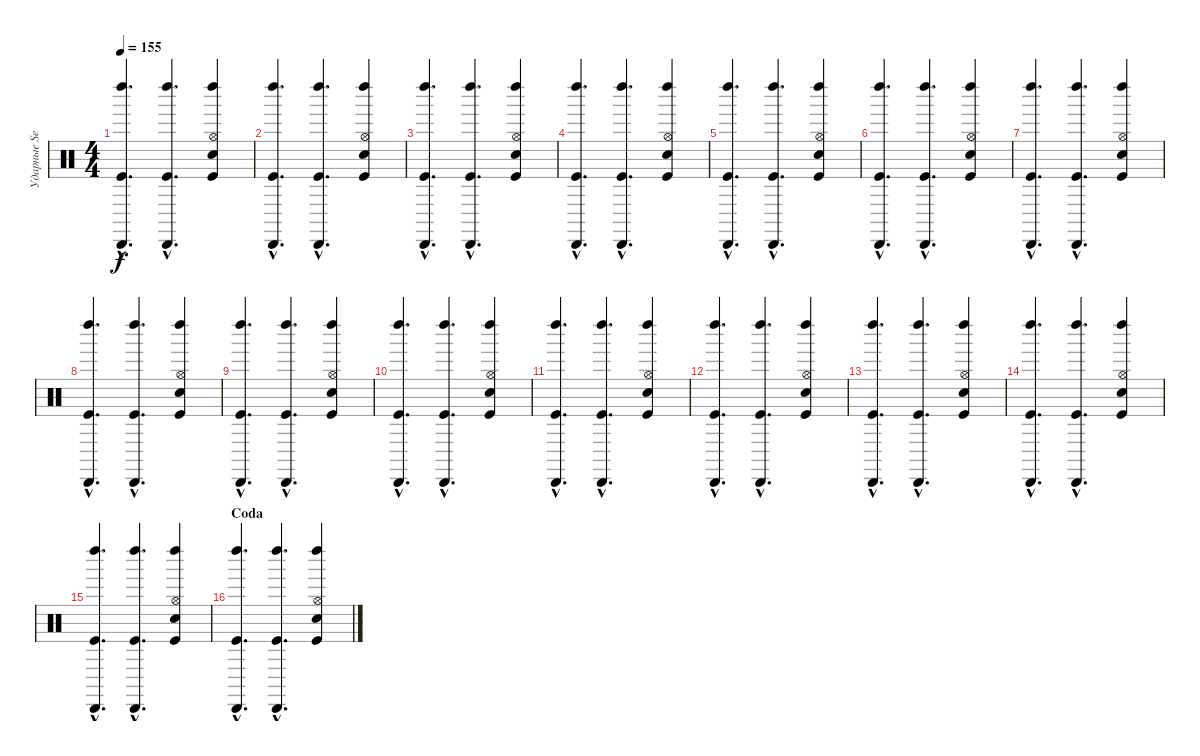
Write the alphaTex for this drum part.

\track ("Ударные Serge Petrone" "Ударные Se") {instrument percussion}
\staff {score}
\articulation defaults
\ts (4 4)
\tempo 155
\clef neutral
\ks c
("Cabasa (hit)"{hac} "Kick (hit)"{hac} "Left Maraca (hit)"{hac}).4{d dy f} ("Cabasa (hit)"{hac} "Kick (hit)"{hac} "Left Maraca (hit)"{hac}).4{d} ("Hi-Hat (open)" "Hand Clap (hit)" "Kick (hit)" "Left Maraca (hit)").4 |
("Cabasa (hit)"{hac} "Kick (hit)"{hac} "Left Maraca (hit)"{hac}).4{d} ("Cabasa (hit)"{hac} "Kick (hit)"{hac} "Left Maraca (hit)"{hac}).4{d} ("Hi-Hat (open)" "Hand Clap (hit)" "Kick (hit)" "Left Maraca (hit)").4 |
("Cabasa (hit)"{hac} "Kick (hit)"{hac} "Left Maraca (hit)"{hac}).4{d} ("Cabasa (hit)"{hac} "Kick (hit)"{hac} "Left Maraca (hit)"{hac}).4{d} ("Hi-Hat (open)" "Hand Clap (hit)" "Kick (hit)" "Left Maraca (hit)").4 |
("Cabasa (hit)"{hac} "Kick (hit)"{hac} "Left Maraca (hit)"{hac}).4{d} ("Cabasa (hit)"{hac} "Kick (hit)"{hac} "Left Maraca (hit)"{hac}).4{d} ("Hi-Hat (open)" "Hand Clap (hit)" "Kick (hit)" "Left Maraca (hit)").4 |
("Cabasa (hit)"{hac} "Kick (hit)"{hac} "Left Maraca (hit)"{hac}).4{d} ("Cabasa (hit)"{hac} "Kick (hit)"{hac} "Left Maraca (hit)"{hac}).4{d} ("Hi-Hat (open)" "Hand Clap (hit)" "Kick (hit)" "Left Maraca (hit)").4 |
("Cabasa (hit)"{hac} "Kick (hit)"{hac} "Left Maraca (hit)"{hac}).4{d} ("Cabasa (hit)"{hac} "Kick (hit)"{hac} "Left Maraca (hit)"{hac}).4{d} ("Hi-Hat (open)" "Hand Clap (hit)" "Kick (hit)" "Left Maraca (hit)").4 |
("Cabasa (hit)"{hac} "Kick (hit)"{hac} "Left Maraca (hit)"{hac}).4{d} ("Cabasa (hit)"{hac} "Kick (hit)"{hac} "Left Maraca (hit)"{hac}).4{d} ("Hi-Hat (open)" "Hand Clap (hit)" "Kick (hit)" "Left Maraca (hit)").4 |
("Cabasa (hit)"{hac} "Kick (hit)"{hac} "Left Maraca (hit)"{hac}).4{d} ("Cabasa (hit)"{hac} "Kick (hit)"{hac} "Left Maraca (hit)"{hac}).4{d} ("Hi-Hat (open)" "Hand Clap (hit)" "Kick (hit)" "Left Maraca (hit)").4 |
("Cabasa (hit)"{hac} "Kick (hit)"{hac} "Left Maraca (hit)"{hac}).4{d} ("Cabasa (hit)"{hac} "Kick (hit)"{hac} "Left Maraca (hit)"{hac}).4{d} ("Hi-Hat (open)" "Hand Clap (hit)" "Kick (hit)" "Left Maraca (hit)").4 |
("Cabasa (hit)"{hac} "Kick (hit)"{hac} "Left Maraca (hit)"{hac}).4{d} ("Cabasa (hit)"{hac} "Kick (hit)"{hac} "Left Maraca (hit)"{hac}).4{d} ("Hi-Hat (open)" "Hand Clap (hit)" "Kick (hit)" "Left Maraca (hit)").4 |
("Cabasa (hit)"{hac} "Kick (hit)"{hac} "Left Maraca (hit)"{hac}).4{d} ("Cabasa (hit)"{hac} "Kick (hit)"{hac} "Left Maraca (hit)"{hac}).4{d} ("Hi-Hat (open)" "Hand Clap (hit)" "Kick (hit)" "Left Maraca (hit)").4 |
("Cabasa (hit)"{hac} "Kick (hit)"{hac} "Left Maraca (hit)"{hac}).4{d} ("Cabasa (hit)"{hac} "Kick (hit)"{hac} "Left Maraca (hit)"{hac}).4{d} ("Hi-Hat (open)" "Hand Clap (hit)" "Kick (hit)" "Left Maraca (hit)").4 |
("Cabasa (hit)"{hac} "Kick (hit)"{hac} "Left Maraca (hit)"{hac}).4{d} ("Cabasa (hit)"{hac} "Kick (hit)"{hac} "Left Maraca (hit)"{hac}).4{d} ("Hi-Hat (open)" "Hand Clap (hit)" "Kick (hit)" "Left Maraca (hit)").4 |
("Cabasa (hit)"{hac} "Kick (hit)"{hac} "Left Maraca (hit)"{hac}).4{d} ("Cabasa (hit)"{hac} "Kick (hit)"{hac} "Left Maraca (hit)"{hac}).4{d} ("Hi-Hat (open)" "Hand Clap (hit)" "Kick (hit)" "Left Maraca (hit)").4 |
("Cabasa (hit)"{hac} "Kick (hit)"{hac} "Left Maraca (hit)"{hac}).4{d} ("Cabasa (hit)"{hac} "Kick (hit)"{hac} "Left Maraca (hit)"{hac}).4{d} ("Hi-Hat (open)" "Hand Clap (hit)" "Kick (hit)" "Left Maraca (hit)").4 |
\section ("" "Coda")
("Cabasa (hit)"{hac} "Kick (hit)"{hac} "Left Maraca (hit)"{hac}).4{d} ("Cabasa (hit)"{hac} "Kick (hit)"{hac} "Left Maraca (hit)"{hac}).4{d} ("Hi-Hat (open)" "Hand Clap (hit)" "Kick (hit)" "Left Maraca (hit)").4
